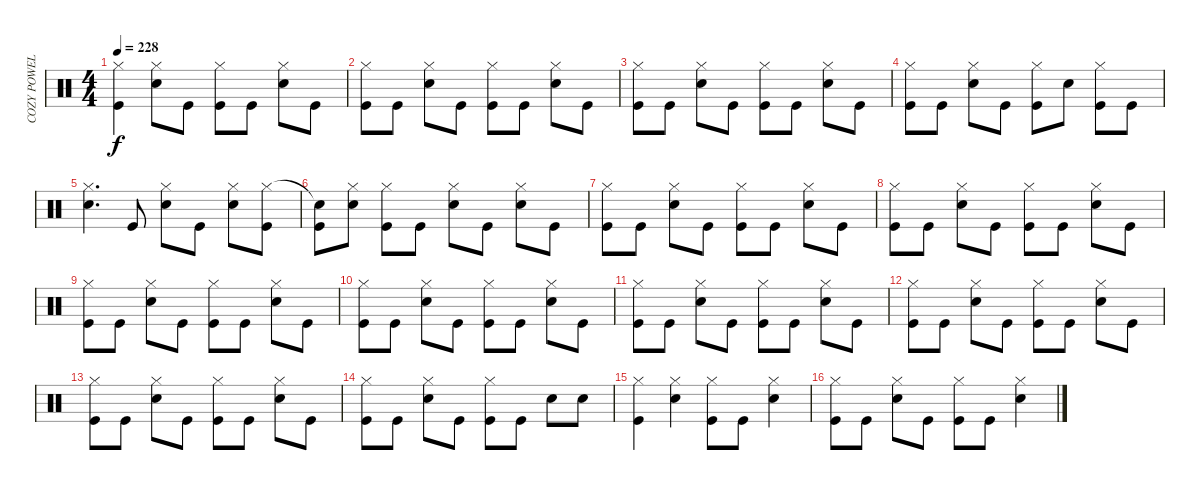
\track ("COZY POWELL" "COZY POWEL") {instrument percussion}
\staff {score}
\articulation defaults
\ts (4 4)
\tempo 228
\clef neutral
\ks c
("Hi-Hat (closed)" "Kick (hit)").4{dy f} ("Hi-Hat (closed)" "Snare (hit) 2").8 "Kick (hit)".8 ("Hi-Hat (closed)" "Kick (hit)").8 "Kick (hit)".8 ("Hi-Hat (closed)" "Snare (hit) 2").8 "Kick (hit)".8 |
("Hi-Hat (closed)" "Kick (hit)").8 "Kick (hit)".8 ("Hi-Hat (closed)" "Snare (hit) 2").8 "Kick (hit)".8 ("Hi-Hat (closed)" "Kick (hit)").8 "Kick (hit)".8 ("Hi-Hat (closed)" "Snare (hit) 2").8 "Kick (hit)".8 |
("Hi-Hat (closed)" "Kick (hit)").8 "Kick (hit)".8 ("Hi-Hat (closed)" "Snare (hit) 2").8 "Kick (hit)".8 ("Hi-Hat (closed)" "Kick (hit)").8 "Kick (hit)".8 ("Hi-Hat (closed)" "Snare (hit) 2").8 "Kick (hit)".8 |
("Hi-Hat (closed)" "Kick (hit)").8 "Kick (hit)".8 ("Hi-Hat (closed)" "Snare (hit) 2").8 "Kick (hit)".8 ("Hi-Hat (closed)" "Kick (hit)").8 "Snare (hit) 2".8 ("Hi-Hat (closed)" "Kick (hit)").8 "Kick (hit)".8 |
("Hi-Hat (closed)" "Snare (hit) 2").4{d} "Kick (hit)".8 ("Hi-Hat (closed)" "Snare (hit) 2").8 "Kick (hit)".8 ("Hi-Hat (closed)" "Snare (hit) 2").8 ("Hi-Hat (closed)" "Kick (hit)").8 |
("Snare (hit)"{t} "Kick (hit)").8 ("Hi-Hat (closed)" "Snare (hit) 2").8 ("Hi-Hat (closed)" "Kick (hit)").8 "Kick (hit)".8 ("Hi-Hat (closed)" "Snare (hit) 2").8 "Kick (hit)".8 ("Hi-Hat (closed)" "Snare (hit) 2").8 "Kick (hit)".8 |
("Hi-Hat (closed)" "Kick (hit)").8 "Kick (hit)".8 ("Hi-Hat (closed)" "Snare (hit) 2").8 "Kick (hit)".8 ("Hi-Hat (closed)" "Kick (hit)").8 "Kick (hit)".8 ("Hi-Hat (closed)" "Snare (hit) 2").8 "Kick (hit)".8 |
("Hi-Hat (closed)" "Kick (hit)").8 "Kick (hit)".8 ("Hi-Hat (closed)" "Snare (hit) 2").8 "Kick (hit)".8 ("Hi-Hat (closed)" "Kick (hit)").8 "Kick (hit)".8 ("Hi-Hat (closed)" "Snare (hit) 2").8 "Kick (hit)".8 |
("Hi-Hat (closed)" "Kick (hit)").8 "Kick (hit)".8 ("Hi-Hat (closed)" "Snare (hit) 2").8 "Kick (hit)".8 ("Hi-Hat (closed)" "Kick (hit)").8 "Kick (hit)".8 ("Hi-Hat (closed)" "Snare (hit) 2").8 "Kick (hit)".8 |
("Hi-Hat (closed)" "Kick (hit)").8 "Kick (hit)".8 ("Hi-Hat (closed)" "Snare (hit) 2").8 "Kick (hit)".8 ("Hi-Hat (closed)" "Kick (hit)").8 "Kick (hit)".8 ("Hi-Hat (closed)" "Snare (hit) 2").8 "Kick (hit)".8 |
("Hi-Hat (closed)" "Kick (hit)").8 "Kick (hit)".8 ("Hi-Hat (closed)" "Snare (hit) 2").8 "Kick (hit)".8 ("Hi-Hat (closed)" "Kick (hit)").8 "Kick (hit)".8 ("Hi-Hat (closed)" "Snare (hit) 2").8 "Kick (hit)".8 |
("Hi-Hat (closed)" "Kick (hit)").8 "Kick (hit)".8 ("Hi-Hat (closed)" "Snare (hit) 2").8 "Kick (hit)".8 ("Hi-Hat (closed)" "Kick (hit)").8 "Kick (hit)".8 ("Hi-Hat (closed)" "Snare (hit) 2").8 "Kick (hit)".8 |
("Hi-Hat (closed)" "Kick (hit)").8 "Kick (hit)".8 ("Hi-Hat (closed)" "Snare (hit) 2").8 "Kick (hit)".8 ("Hi-Hat (closed)" "Kick (hit)").8 "Kick (hit)".8 ("Hi-Hat (closed)" "Snare (hit) 2").8 "Kick (hit)".8 |
("Hi-Hat (closed)" "Kick (hit)").8 "Kick (hit)".8 ("Hi-Hat (closed)" "Snare (hit) 2").8 "Kick (hit)".8 ("Hi-Hat (closed)" "Kick (hit)").8 "Kick (hit)".8 "Snare (hit) 2".8 "Snare (hit) 2".8 |
("Hi-Hat (closed)" "Kick (hit)").4 ("Hi-Hat (closed)" "Snare (hit) 2").4 ("Hi-Hat (closed)" "Kick (hit)").8 "Kick (hit)".8 ("Hi-Hat (closed)" "Snare (hit) 2").4 |
("Hi-Hat (closed)" "Kick (hit)").8 "Kick (hit)".8 ("Hi-Hat (closed)" "Snare (hit) 2").8 "Kick (hit)".8 ("Hi-Hat (closed)" "Kick (hit)").8 "Kick (hit)".8 ("Hi-Hat (closed)" "Snare (hit) 2").4
